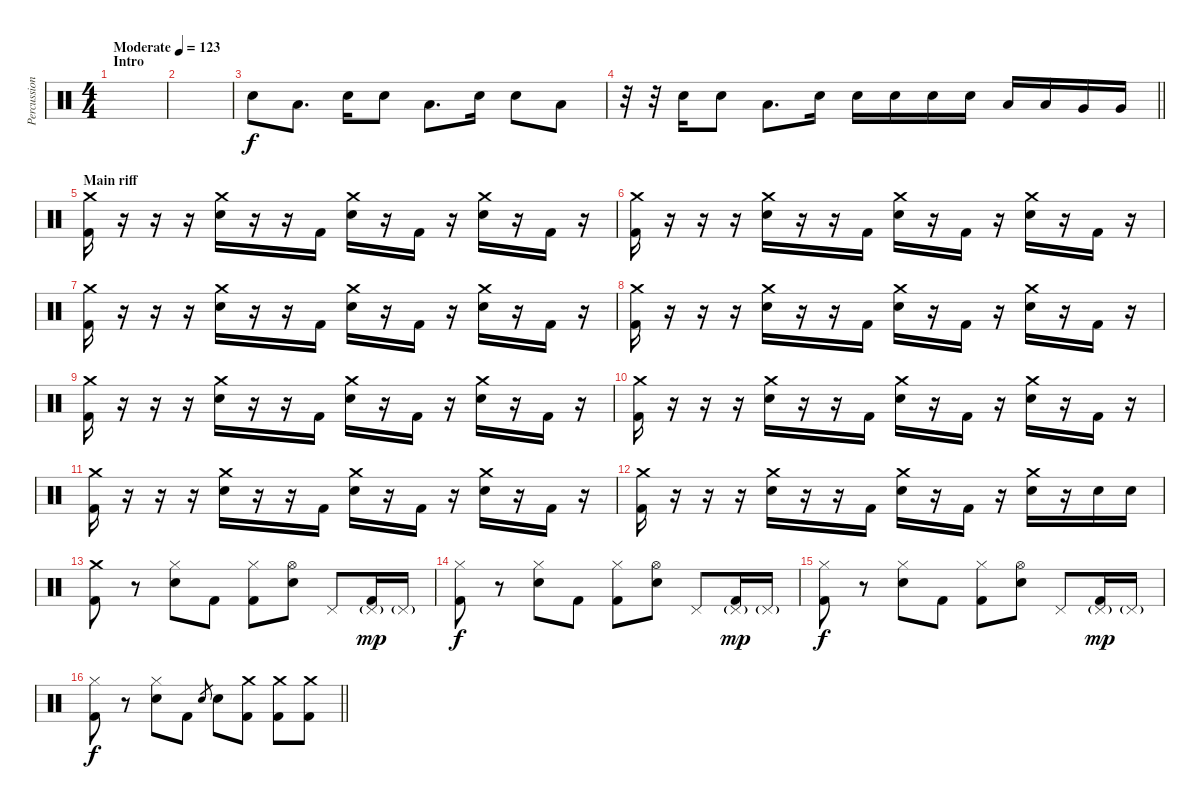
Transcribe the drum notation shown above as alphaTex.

\track ("Percussion" "Percussion") {instrument percussion}
\staff {score}
\articulation defaults
\ts (4 4)
\section ("" "Intro")
\tempo (123 "Moderate")
\clef neutral
\ks c
|
|
"Electric Snare (hit)".8 "Low Tom (hit)".8{d} "Electric Snare (hit)".16 "Electric Snare (hit)".8 "Low Tom (hit)".8{d} "Electric Snare (hit)".16 "Electric Snare (hit)".8 "Low Tom (hit)".8 |
\barLineRight lightlight
r.32 r.32 "Electric Snare (hit)".16 "Electric Snare (hit)".8 "Low Tom (hit)".8{d} "Electric Snare (hit)".16 "Electric Snare (hit)".16 "Electric Snare (hit)".16 "Electric Snare (hit)".16 "Electric Snare (hit)".16 "Low Tom (hit)".16 "Low Tom (hit)".16 "Very Low Tom (hit)".16 "Very Low Tom (hit)".16 |
\section ("" "Main riff")
("Crash medium (hit)" "Kick (hit) 2").16 r.16 r.16 r.16 ("Crash medium (hit)" "Electric Snare (hit)").16 r.16 r.16 "Kick (hit) 2".16 ("Crash medium (hit)" "Electric Snare (hit)").16 r.16 "Kick (hit) 2".16 r.16 ("Crash medium (hit)" "Electric Snare (hit)").16 r.16 "Kick (hit) 2".16 r.16 |
("Crash medium (hit)" "Kick (hit) 2").16 r.16 r.16 r.16 ("Crash medium (hit)" "Electric Snare (hit)").16 r.16 r.16 "Kick (hit) 2".16 ("Crash medium (hit)" "Electric Snare (hit)").16 r.16 "Kick (hit) 2".16 r.16 ("Crash medium (hit)" "Electric Snare (hit)").16 r.16 "Kick (hit) 2".16 r.16 |
("Crash medium (hit)" "Kick (hit) 2").16 r.16 r.16 r.16 ("Crash medium (hit)" "Electric Snare (hit)").16 r.16 r.16 "Kick (hit) 2".16 ("Crash medium (hit)" "Electric Snare (hit)").16 r.16 "Kick (hit) 2".16 r.16 ("Crash medium (hit)" "Electric Snare (hit)").16 r.16 "Kick (hit) 2".16 r.16 |
("Crash medium (hit)" "Kick (hit) 2").16 r.16 r.16 r.16 ("Crash medium (hit)" "Electric Snare (hit)").16 r.16 r.16 "Kick (hit) 2".16 ("Crash medium (hit)" "Electric Snare (hit)").16 r.16 "Kick (hit) 2".16 r.16 ("Crash medium (hit)" "Electric Snare (hit)").16 r.16 "Kick (hit) 2".16 r.16 |
("Crash medium (hit)" "Kick (hit) 2").16 r.16 r.16 r.16 ("Crash medium (hit)" "Electric Snare (hit)").16 r.16 r.16 "Kick (hit) 2".16 ("Crash medium (hit)" "Electric Snare (hit)").16 r.16 "Kick (hit) 2".16 r.16 ("Crash medium (hit)" "Electric Snare (hit)").16 r.16 "Kick (hit) 2".16 r.16 |
("Crash medium (hit)" "Kick (hit) 2").16 r.16 r.16 r.16 ("Crash medium (hit)" "Electric Snare (hit)").16 r.16 r.16 "Kick (hit) 2".16 ("Crash medium (hit)" "Electric Snare (hit)").16 r.16 "Kick (hit) 2".16 r.16 ("Crash medium (hit)" "Electric Snare (hit)").16 r.16 "Kick (hit) 2".16 r.16 |
("Crash medium (hit)" "Kick (hit) 2").16 r.16 r.16 r.16 ("Crash medium (hit)" "Electric Snare (hit)").16 r.16 r.16 "Kick (hit) 2".16 ("Crash medium (hit)" "Electric Snare (hit)").16 r.16 "Kick (hit) 2".16 r.16 ("Crash medium (hit)" "Electric Snare (hit)").16 r.16 "Kick (hit) 2".16 r.16 |
("Crash medium (hit)" "Kick (hit) 2").16 r.16 r.16 r.16 ("Crash medium (hit)" "Electric Snare (hit)").16 r.16 r.16 "Kick (hit) 2".16 ("Crash medium (hit)" "Electric Snare (hit)").16 r.16 "Kick (hit) 2".16 r.16 ("Crash medium (hit)" "Electric Snare (hit)").16 r.16 "Electric Snare (hit)".16 "Electric Snare (hit)".16 |
("Crash medium (hit)" "Kick (hit) 2").8 r.8 ("Hi-Hat (closed)" "Electric Snare (hit)").8 "Kick (hit) 2".8 ("Hi-Hat (closed)" "Kick (hit) 2").8 ("Hi-Hat (open)" "Electric Snare (hit)").8 "Pedal Hi-Hat (hit)".8 ("Pedal Hi-Hat (hit)"{g} "Kick (hit) 2").16{dy mp} "Pedal Hi-Hat (hit)"{g}.16 |
("Hi-Hat (closed)" "Kick (hit) 2").8{dy f} r.8 ("Hi-Hat (closed)" "Electric Snare (hit)").8 "Kick (hit) 2".8 ("Hi-Hat (closed)" "Kick (hit) 2").8 ("Hi-Hat (open)" "Electric Snare (hit)").8 "Pedal Hi-Hat (hit)".8 ("Pedal Hi-Hat (hit)"{g} "Kick (hit) 2").16{dy mp} "Pedal Hi-Hat (hit)"{g}.16 |
("Hi-Hat (closed)" "Kick (hit) 2").8{dy f} r.8 ("Hi-Hat (closed)" "Electric Snare (hit)").8 "Kick (hit) 2".8 ("Hi-Hat (closed)" "Kick (hit) 2").8 ("Hi-Hat (open)" "Electric Snare (hit)").8 "Pedal Hi-Hat (hit)".8 ("Pedal Hi-Hat (hit)"{g} "Kick (hit) 2").16{dy mp} "Pedal Hi-Hat (hit)"{g}.16 |
\barLineRight lightlight
("Hi-Hat (closed)" "Kick (hit) 2").8{dy f} r.8 ("Hi-Hat (closed)" "Electric Snare (hit)").8 "Kick (hit) 2".8 "Electric Snare (hit)".8{gr} "Electric Snare (hit)".8 ("Crash medium (hit)" "Kick (hit) 2").8 ("Crash medium (hit)" "Kick (hit) 2").8 ("Crash medium (hit)" "Kick (hit) 2").8
